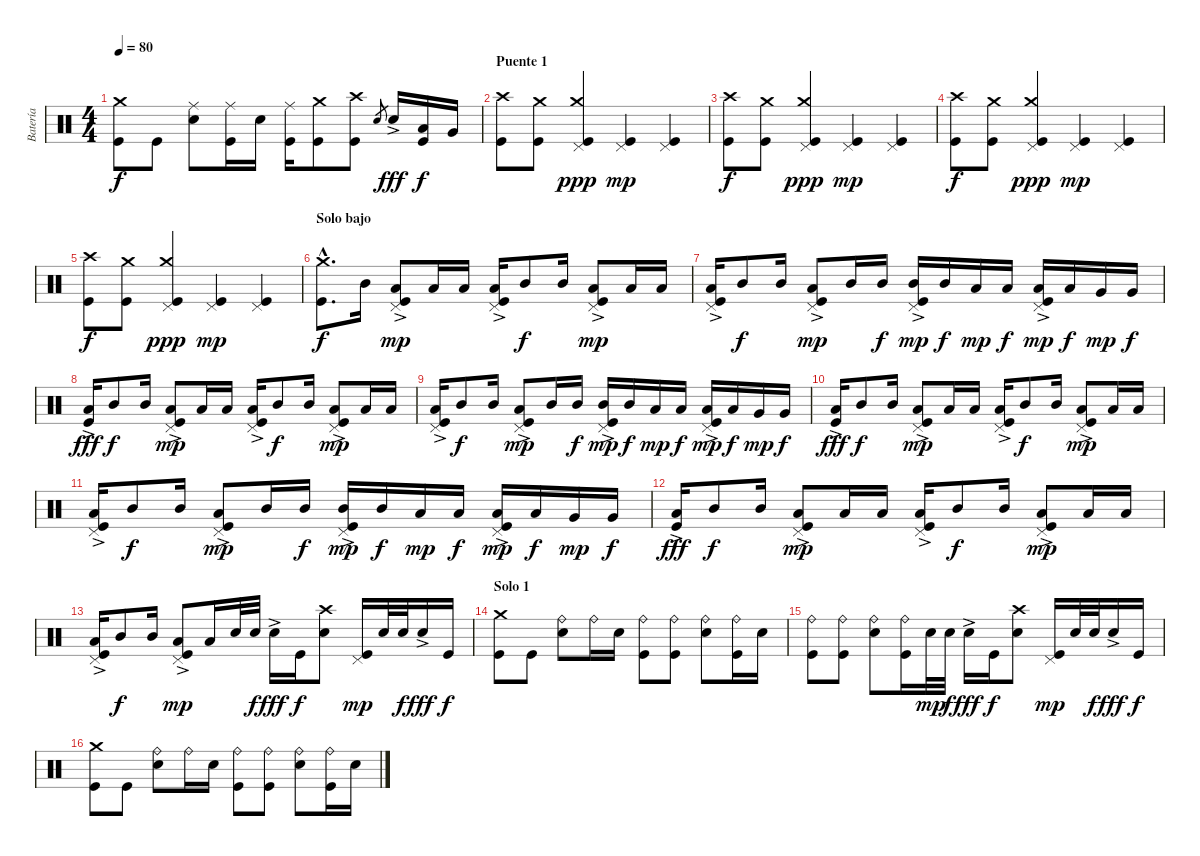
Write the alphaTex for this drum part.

\track ("Batería" "Batería") {instrument percussion}
\staff {score}
\articulation defaults
\ts (4 4)
\tempo 80
\clef neutral
\ks c
("Kick (hit)" "Crash medium (hit)").8{dy f} "Kick (hit)".8 ("Electric Snare (hit)" "Ride (middle)").8 ("Kick (hit)" "Ride (middle)").16 "Electric Snare (hit)".16 ("Kick (hit)" "Ride (middle)").16 ("Kick (hit)" "Crash medium (hit)").8 ("Kick (hit)" "Crash high (hit)").8 "Electric Snare (hit)".8{gr} "Electric Snare (hit)"{ac}.16{dy fff} ("Kick (hit)" "Low Tom (hit)").16{dy f} "Very Low Tom (hit)".16 |
\section ("" "Puente 1")
("Kick (hit)" "Crash high (hit)").8 ("Kick (hit)" "Crash medium (hit)").8 ("Kick (hit)" "Pedal Hi-Hat (hit)" "Crash medium (hit)").4{dy ppp} ("Kick (hit)" "Pedal Hi-Hat (hit)").4{dy mp} ("Kick (hit)" "Pedal Hi-Hat (hit)").4 |
("Kick (hit)" "Crash high (hit)").8{dy f} ("Kick (hit)" "Crash medium (hit)").8 ("Kick (hit)" "Pedal Hi-Hat (hit)" "Crash medium (hit)").4{dy ppp} ("Kick (hit)" "Pedal Hi-Hat (hit)").4{dy mp} ("Kick (hit)" "Pedal Hi-Hat (hit)").4 |
("Kick (hit)" "Crash high (hit)").8{dy f} ("Kick (hit)" "Crash medium (hit)").8 ("Kick (hit)" "Pedal Hi-Hat (hit)" "Crash medium (hit)").4{dy ppp} ("Kick (hit)" "Pedal Hi-Hat (hit)").4{dy mp} ("Kick (hit)" "Pedal Hi-Hat (hit)").4 |
("Kick (hit)" "Crash high (hit)").8{dy f} ("Kick (hit)" "Crash medium (hit)").8 ("Kick (hit)" "Pedal Hi-Hat (hit)" "Crash medium (hit)").4{dy ppp} ("Kick (hit)" "Pedal Hi-Hat (hit)").4{dy mp} ("Kick (hit)" "Pedal Hi-Hat (hit)").4 |
\section ("" "Solo bajo")
("Kick (hit)"{hac} "Crash medium (hit)"{hac}).8{d dy f} "Mid Tom (hit)".16 ("Kick (hit)" "Low Tom (hit)"{ac} "Pedal Hi-Hat (hit)").8{dy mp} "Low Tom (hit)".16 "Low Tom (hit)".16 ("Kick (hit)" "Low Tom (hit)"{ac} "Pedal Hi-Hat (hit)").16 "Mid Tom (hit)".8{dy f} "Mid Tom (hit)".16 ("Kick (hit)" "Low Tom (hit)"{ac} "Pedal Hi-Hat (hit)").8{dy mp} "Low Tom (hit)".16 "Low Tom (hit)".16 |
("Kick (hit)" "Low Tom (hit)"{ac} "Pedal Hi-Hat (hit)").16 "Mid Tom (hit)".8{dy f} "Mid Tom (hit)".16 ("Kick (hit)" "Low Tom (hit)"{ac} "Pedal Hi-Hat (hit)").8{dy mp} "Mid Tom (hit)".16 "Mid Tom (hit)".16{dy f} ("Kick (hit)" "Mid Tom (hit)"{ac} "Pedal Hi-Hat (hit)").16{dy mp} "Mid Tom (hit)".16{dy f} "Low Tom (hit)".16{dy mp} "Low Tom (hit)".16{dy f} ("Kick (hit)" "Low Tom (hit)"{ac} "Pedal Hi-Hat (hit)").16{dy mp} "Low Tom (hit)".16{dy f} "Very Low Tom (hit)".16{dy mp} "Very Low Tom (hit)".16{dy f} |
("Kick (hit)" "Low Tom (hit)"{ac}).16{dy fff} "Mid Tom (hit)".8{dy f} "Mid Tom (hit)".16 ("Kick (hit)" "Low Tom (hit)"{ac} "Pedal Hi-Hat (hit)").8{dy mp} "Low Tom (hit)".16 "Low Tom (hit)".16 ("Kick (hit)" "Low Tom (hit)"{ac} "Pedal Hi-Hat (hit)").16 "Mid Tom (hit)".8{dy f} "Mid Tom (hit)".16 ("Kick (hit)" "Low Tom (hit)"{ac} "Pedal Hi-Hat (hit)").8{dy mp} "Low Tom (hit)".16 "Low Tom (hit)".16 |
("Kick (hit)" "Low Tom (hit)"{ac} "Pedal Hi-Hat (hit)").16 "Mid Tom (hit)".8{dy f} "Mid Tom (hit)".16 ("Kick (hit)" "Low Tom (hit)"{ac} "Pedal Hi-Hat (hit)").8{dy mp} "Mid Tom (hit)".16 "Mid Tom (hit)".16{dy f} ("Kick (hit)" "Mid Tom (hit)"{ac} "Pedal Hi-Hat (hit)").16{dy mp} "Mid Tom (hit)".16{dy f} "Low Tom (hit)".16{dy mp} "Low Tom (hit)".16{dy f} ("Kick (hit)" "Low Tom (hit)"{ac} "Pedal Hi-Hat (hit)").16{dy mp} "Low Tom (hit)".16{dy f} "Very Low Tom (hit)".16{dy mp} "Very Low Tom (hit)".16{dy f} |
("Kick (hit)" "Low Tom (hit)"{ac}).16{dy fff} "Mid Tom (hit)".8{dy f} "Mid Tom (hit)".16 ("Kick (hit)" "Low Tom (hit)"{ac} "Pedal Hi-Hat (hit)").8{dy mp} "Low Tom (hit)".16 "Low Tom (hit)".16 ("Kick (hit)" "Low Tom (hit)"{ac} "Pedal Hi-Hat (hit)").16 "Mid Tom (hit)".8{dy f} "Mid Tom (hit)".16 ("Kick (hit)" "Low Tom (hit)"{ac} "Pedal Hi-Hat (hit)").8{dy mp} "Low Tom (hit)".16 "Low Tom (hit)".16 |
("Kick (hit)" "Low Tom (hit)"{ac} "Pedal Hi-Hat (hit)").16 "Mid Tom (hit)".8{dy f} "Mid Tom (hit)".16 ("Kick (hit)" "Low Tom (hit)"{ac} "Pedal Hi-Hat (hit)").8{dy mp} "Mid Tom (hit)".16 "Mid Tom (hit)".16{dy f} ("Kick (hit)" "Mid Tom (hit)"{ac} "Pedal Hi-Hat (hit)").16{dy mp} "Mid Tom (hit)".16{dy f} "Low Tom (hit)".16{dy mp} "Low Tom (hit)".16{dy f} ("Kick (hit)" "Low Tom (hit)"{ac} "Pedal Hi-Hat (hit)").16{dy mp} "Low Tom (hit)".16{dy f} "Very Low Tom (hit)".16{dy mp} "Very Low Tom (hit)".16{dy f} |
("Kick (hit)" "Low Tom (hit)"{ac}).16{dy fff} "Mid Tom (hit)".8{dy f} "Mid Tom (hit)".16 ("Kick (hit)" "Low Tom (hit)"{ac} "Pedal Hi-Hat (hit)").8{dy mp} "Low Tom (hit)".16 "Low Tom (hit)".16 ("Kick (hit)" "Low Tom (hit)"{ac} "Pedal Hi-Hat (hit)").16 "Mid Tom (hit)".8{dy f} "Mid Tom (hit)".16 ("Kick (hit)" "Low Tom (hit)"{ac} "Pedal Hi-Hat (hit)").8{dy mp} "Low Tom (hit)".16 "Low Tom (hit)".16 |
("Kick (hit)" "Low Tom (hit)"{ac} "Pedal Hi-Hat (hit)").16 "Mid Tom (hit)".8{dy f} "Mid Tom (hit)".16 ("Kick (hit)" "Low Tom (hit)"{ac} "Pedal Hi-Hat (hit)").8{dy mp} "Low Tom (hit)".16 "Electric Snare (hit)".32 "Electric Snare (hit)".32{dy f} "Electric Snare (hit)"{ac}.16{dy fff} "Kick (hit)".16{dy f} ("Electric Snare (hit)" "Crash high (hit)").8 ("Kick (hit)" "Pedal Hi-Hat (hit)").16{dy mp} "Electric Snare (hit)".32 "Electric Snare (hit)".32{dy f} "Electric Snare (hit)"{ac}.16{dy fff} "Kick (hit)".16{dy f} |
\section ("" "Solo 1")
("Kick (hit)" "Crash medium (hit)").8 "Kick (hit)".8 ("Electric Snare (hit)" "Ride (bell)").8 "Ride (bell)".16 "Electric Snare (hit)".16 ("Kick (hit)" "Ride (bell)").8 ("Kick (hit)" "Ride (bell)").8 ("Electric Snare (hit)" "Ride (bell)").8 ("Kick (hit)" "Ride (bell)").16 "Electric Snare (hit)".16 |
("Kick (hit)" "Ride (bell)").8 ("Kick (hit)" "Ride (bell)").8 ("Electric Snare (hit)" "Ride (bell)").8 ("Kick (hit)" "Ride (bell)").16 "Electric Snare (hit)".32{dy mp} "Electric Snare (hit)".32{dy f} "Electric Snare (hit)"{ac}.16{dy fff} "Kick (hit)".16{dy f} ("Electric Snare (hit)" "Crash high (hit)").8 ("Kick (hit)" "Pedal Hi-Hat (hit)").16{dy mp} "Electric Snare (hit)".32 "Electric Snare (hit)".32{dy f} "Electric Snare (hit)"{ac}.16{dy fff} "Kick (hit)".16{dy f} |
("Kick (hit)" "Crash medium (hit)").8 "Kick (hit)".8 ("Electric Snare (hit)" "Ride (bell)").8 "Ride (bell)".16 "Electric Snare (hit)".16 ("Kick (hit)" "Ride (bell)").8 ("Kick (hit)" "Ride (bell)").8 ("Electric Snare (hit)" "Ride (bell)").8 ("Kick (hit)" "Ride (bell)").16 "Electric Snare (hit)".16
